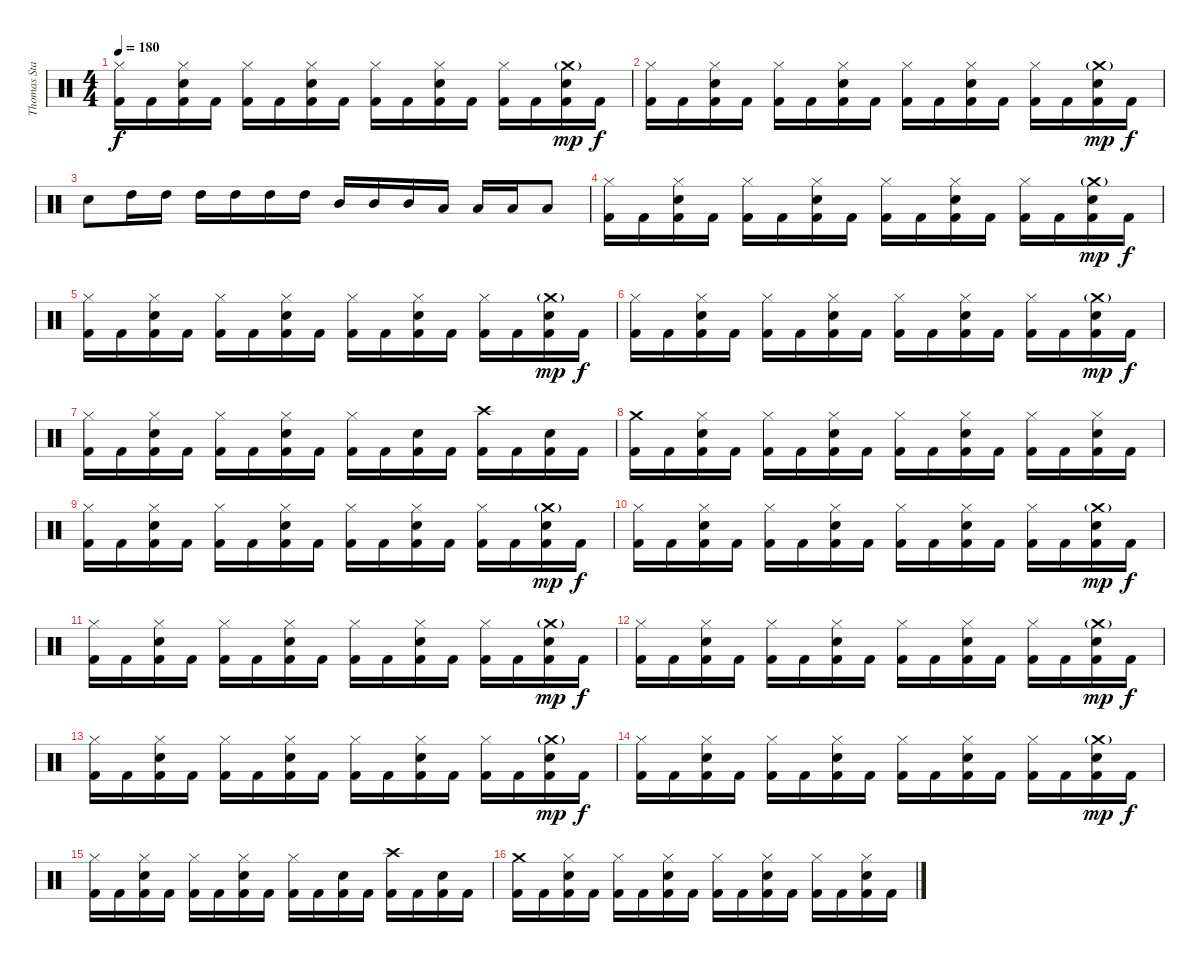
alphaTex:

\track ("Thomas Stauch" "Thomas Sta") {instrument percussion}
\staff {score}
\articulation defaults
\ts (4 4)
\tempo 180
\clef neutral
\ks c
("Hi-Hat (closed)" "Kick (hit) 2").16{dy f} "Kick (hit) 2".16 ("Hi-Hat (closed)" "Electric Snare (hit)" "Kick (hit) 2").16 "Kick (hit) 2".16 ("Hi-Hat (closed)" "Kick (hit) 2").16 "Kick (hit) 2".16 ("Hi-Hat (closed)" "Electric Snare (hit)" "Kick (hit) 2").16 "Kick (hit) 2".16 ("Hi-Hat (closed)" "Kick (hit) 2").16 "Kick (hit) 2".16 ("Hi-Hat (closed)" "Electric Snare (hit)" "Kick (hit) 2").16 "Kick (hit) 2".16 ("Hi-Hat (closed)" "Kick (hit) 2").16 "Kick (hit) 2".16 ("Crash medium (hit)"{g} "Electric Snare (hit)" "Kick (hit) 2").16{dy mp} "Kick (hit) 2".16{dy f} |
("Hi-Hat (closed)" "Kick (hit) 2").16 "Kick (hit) 2".16 ("Hi-Hat (closed)" "Electric Snare (hit)" "Kick (hit) 2").16 "Kick (hit) 2".16 ("Hi-Hat (closed)" "Kick (hit) 2").16 "Kick (hit) 2".16 ("Hi-Hat (closed)" "Electric Snare (hit)" "Kick (hit) 2").16 "Kick (hit) 2".16 ("Hi-Hat (closed)" "Kick (hit) 2").16 "Kick (hit) 2".16 ("Hi-Hat (closed)" "Electric Snare (hit)" "Kick (hit) 2").16 "Kick (hit) 2".16 ("Hi-Hat (closed)" "Kick (hit) 2").16 "Kick (hit) 2".16 ("Crash medium (hit)"{g} "Electric Snare (hit)" "Kick (hit) 2").16{dy mp} "Kick (hit) 2".16{dy f} |
"Electric Snare (hit)".8 "High Tom (hit)".16 "High Tom (hit)".16 "High Tom (hit)".16 "High Tom (hit)".16 "High Tom (hit)".16 "High Tom (hit)".16 "Mid Tom (hit)".16 "Mid Tom (hit)".16 "Mid Tom (hit)".16 "Low Tom (hit)".16 "Low Tom (hit)".16 "Low Tom (hit)".16 "Low Tom (hit)".8 |
("Hi-Hat (closed)" "Kick (hit) 2").16 "Kick (hit) 2".16 ("Hi-Hat (closed)" "Electric Snare (hit)" "Kick (hit) 2").16 "Kick (hit) 2".16 ("Hi-Hat (closed)" "Kick (hit) 2").16 "Kick (hit) 2".16 ("Hi-Hat (closed)" "Electric Snare (hit)" "Kick (hit) 2").16 "Kick (hit) 2".16 ("Hi-Hat (closed)" "Kick (hit) 2").16 "Kick (hit) 2".16 ("Hi-Hat (closed)" "Electric Snare (hit)" "Kick (hit) 2").16 "Kick (hit) 2".16 ("Hi-Hat (closed)" "Kick (hit) 2").16 "Kick (hit) 2".16 ("Crash medium (hit)"{g} "Electric Snare (hit)" "Kick (hit) 2").16{dy mp} "Kick (hit) 2".16{dy f} |
("Hi-Hat (closed)" "Kick (hit) 2").16 "Kick (hit) 2".16 ("Hi-Hat (closed)" "Electric Snare (hit)" "Kick (hit) 2").16 "Kick (hit) 2".16 ("Hi-Hat (closed)" "Kick (hit) 2").16 "Kick (hit) 2".16 ("Hi-Hat (closed)" "Electric Snare (hit)" "Kick (hit) 2").16 "Kick (hit) 2".16 ("Hi-Hat (closed)" "Kick (hit) 2").16 "Kick (hit) 2".16 ("Hi-Hat (closed)" "Electric Snare (hit)" "Kick (hit) 2").16 "Kick (hit) 2".16 ("Hi-Hat (closed)" "Kick (hit) 2").16 "Kick (hit) 2".16 ("Crash medium (hit)"{g} "Electric Snare (hit)" "Kick (hit) 2").16{dy mp} "Kick (hit) 2".16{dy f} |
("Hi-Hat (closed)" "Kick (hit) 2").16 "Kick (hit) 2".16 ("Hi-Hat (closed)" "Electric Snare (hit)" "Kick (hit) 2").16 "Kick (hit) 2".16 ("Hi-Hat (closed)" "Kick (hit) 2").16 "Kick (hit) 2".16 ("Hi-Hat (closed)" "Electric Snare (hit)" "Kick (hit) 2").16 "Kick (hit) 2".16 ("Hi-Hat (closed)" "Kick (hit) 2").16 "Kick (hit) 2".16 ("Hi-Hat (closed)" "Electric Snare (hit)" "Kick (hit) 2").16 "Kick (hit) 2".16 ("Hi-Hat (closed)" "Kick (hit) 2").16 "Kick (hit) 2".16 ("Crash medium (hit)"{g} "Electric Snare (hit)" "Kick (hit) 2").16{dy mp} "Kick (hit) 2".16{dy f} |
("Hi-Hat (closed)" "Kick (hit) 2").16 "Kick (hit) 2".16 ("Hi-Hat (closed)" "Electric Snare (hit)" "Kick (hit) 2").16 "Kick (hit) 2".16 ("Hi-Hat (closed)" "Kick (hit) 2").16 "Kick (hit) 2".16 ("Hi-Hat (closed)" "Electric Snare (hit)" "Kick (hit) 2").16 "Kick (hit) 2".16 ("Hi-Hat (closed)" "Kick (hit) 2").16 "Kick (hit) 2".16 ("Electric Snare (hit)" "Kick (hit) 2").16 "Kick (hit) 2".16 ("Crash high (hit)" "Kick (hit) 2").16 "Kick (hit) 2".16 ("Electric Snare (hit)" "Kick (hit) 2").16 "Kick (hit) 2".16 |
("Crash medium (hit)" "Kick (hit) 2").16 "Kick (hit) 2".16 ("Hi-Hat (closed)" "Electric Snare (hit)" "Kick (hit) 2").16 "Kick (hit) 2".16 ("Hi-Hat (closed)" "Kick (hit) 2").16 "Kick (hit) 2".16 ("Hi-Hat (closed)" "Electric Snare (hit)" "Kick (hit) 2").16 "Kick (hit) 2".16 ("Hi-Hat (closed)" "Kick (hit) 2").16 "Kick (hit) 2".16 ("Hi-Hat (closed)" "Electric Snare (hit)" "Kick (hit) 2").16 "Kick (hit) 2".16 ("Hi-Hat (closed)" "Kick (hit) 2").16 "Kick (hit) 2".16 ("Hi-Hat (closed)" "Electric Snare (hit)" "Kick (hit) 2").16 "Kick (hit) 2".16 |
("Hi-Hat (closed)" "Kick (hit) 2").16 "Kick (hit) 2".16 ("Hi-Hat (closed)" "Electric Snare (hit)" "Kick (hit) 2").16 "Kick (hit) 2".16 ("Hi-Hat (closed)" "Kick (hit) 2").16 "Kick (hit) 2".16 ("Hi-Hat (closed)" "Electric Snare (hit)" "Kick (hit) 2").16 "Kick (hit) 2".16 ("Hi-Hat (closed)" "Kick (hit) 2").16 "Kick (hit) 2".16 ("Hi-Hat (closed)" "Electric Snare (hit)" "Kick (hit) 2").16 "Kick (hit) 2".16 ("Hi-Hat (closed)" "Kick (hit) 2").16 "Kick (hit) 2".16 ("Crash medium (hit)"{g} "Electric Snare (hit)" "Kick (hit) 2").16{dy mp} "Kick (hit) 2".16{dy f} |
("Hi-Hat (closed)" "Kick (hit) 2").16 "Kick (hit) 2".16 ("Hi-Hat (closed)" "Electric Snare (hit)" "Kick (hit) 2").16 "Kick (hit) 2".16 ("Hi-Hat (closed)" "Kick (hit) 2").16 "Kick (hit) 2".16 ("Hi-Hat (closed)" "Electric Snare (hit)" "Kick (hit) 2").16 "Kick (hit) 2".16 ("Hi-Hat (closed)" "Kick (hit) 2").16 "Kick (hit) 2".16 ("Hi-Hat (closed)" "Electric Snare (hit)" "Kick (hit) 2").16 "Kick (hit) 2".16 ("Hi-Hat (closed)" "Kick (hit) 2").16 "Kick (hit) 2".16 ("Crash medium (hit)"{g} "Electric Snare (hit)" "Kick (hit) 2").16{dy mp} "Kick (hit) 2".16{dy f} |
("Hi-Hat (closed)" "Kick (hit) 2").16 "Kick (hit) 2".16 ("Hi-Hat (closed)" "Electric Snare (hit)" "Kick (hit) 2").16 "Kick (hit) 2".16 ("Hi-Hat (closed)" "Kick (hit) 2").16 "Kick (hit) 2".16 ("Hi-Hat (closed)" "Electric Snare (hit)" "Kick (hit) 2").16 "Kick (hit) 2".16 ("Hi-Hat (closed)" "Kick (hit) 2").16 "Kick (hit) 2".16 ("Hi-Hat (closed)" "Electric Snare (hit)" "Kick (hit) 2").16 "Kick (hit) 2".16 ("Hi-Hat (closed)" "Kick (hit) 2").16 "Kick (hit) 2".16 ("Crash medium (hit)"{g} "Electric Snare (hit)" "Kick (hit) 2").16{dy mp} "Kick (hit) 2".16{dy f} |
("Hi-Hat (closed)" "Kick (hit) 2").16 "Kick (hit) 2".16 ("Hi-Hat (closed)" "Electric Snare (hit)" "Kick (hit) 2").16 "Kick (hit) 2".16 ("Hi-Hat (closed)" "Kick (hit) 2").16 "Kick (hit) 2".16 ("Hi-Hat (closed)" "Electric Snare (hit)" "Kick (hit) 2").16 "Kick (hit) 2".16 ("Hi-Hat (closed)" "Kick (hit) 2").16 "Kick (hit) 2".16 ("Hi-Hat (closed)" "Electric Snare (hit)" "Kick (hit) 2").16 "Kick (hit) 2".16 ("Hi-Hat (closed)" "Kick (hit) 2").16 "Kick (hit) 2".16 ("Crash medium (hit)"{g} "Electric Snare (hit)" "Kick (hit) 2").16{dy mp} "Kick (hit) 2".16{dy f} |
("Hi-Hat (closed)" "Kick (hit) 2").16 "Kick (hit) 2".16 ("Hi-Hat (closed)" "Electric Snare (hit)" "Kick (hit) 2").16 "Kick (hit) 2".16 ("Hi-Hat (closed)" "Kick (hit) 2").16 "Kick (hit) 2".16 ("Hi-Hat (closed)" "Electric Snare (hit)" "Kick (hit) 2").16 "Kick (hit) 2".16 ("Hi-Hat (closed)" "Kick (hit) 2").16 "Kick (hit) 2".16 ("Hi-Hat (closed)" "Electric Snare (hit)" "Kick (hit) 2").16 "Kick (hit) 2".16 ("Hi-Hat (closed)" "Kick (hit) 2").16 "Kick (hit) 2".16 ("Crash medium (hit)"{g} "Electric Snare (hit)" "Kick (hit) 2").16{dy mp} "Kick (hit) 2".16{dy f} |
("Hi-Hat (closed)" "Kick (hit) 2").16 "Kick (hit) 2".16 ("Hi-Hat (closed)" "Electric Snare (hit)" "Kick (hit) 2").16 "Kick (hit) 2".16 ("Hi-Hat (closed)" "Kick (hit) 2").16 "Kick (hit) 2".16 ("Hi-Hat (closed)" "Electric Snare (hit)" "Kick (hit) 2").16 "Kick (hit) 2".16 ("Hi-Hat (closed)" "Kick (hit) 2").16 "Kick (hit) 2".16 ("Hi-Hat (closed)" "Electric Snare (hit)" "Kick (hit) 2").16 "Kick (hit) 2".16 ("Hi-Hat (closed)" "Kick (hit) 2").16 "Kick (hit) 2".16 ("Crash medium (hit)"{g} "Electric Snare (hit)" "Kick (hit) 2").16{dy mp} "Kick (hit) 2".16{dy f} |
("Hi-Hat (closed)" "Kick (hit) 2").16 "Kick (hit) 2".16 ("Hi-Hat (closed)" "Electric Snare (hit)" "Kick (hit) 2").16 "Kick (hit) 2".16 ("Hi-Hat (closed)" "Kick (hit) 2").16 "Kick (hit) 2".16 ("Hi-Hat (closed)" "Electric Snare (hit)" "Kick (hit) 2").16 "Kick (hit) 2".16 ("Hi-Hat (closed)" "Kick (hit) 2").16 "Kick (hit) 2".16 ("Electric Snare (hit)" "Kick (hit) 2").16 "Kick (hit) 2".16 ("Crash high (hit)" "Kick (hit) 2").16 "Kick (hit) 2".16 ("Electric Snare (hit)" "Kick (hit) 2").16 "Kick (hit) 2".16 |
("Crash medium (hit)" "Kick (hit) 2").16 "Kick (hit) 2".16 ("Hi-Hat (closed)" "Electric Snare (hit)" "Kick (hit) 2").16 "Kick (hit) 2".16 ("Hi-Hat (closed)" "Kick (hit) 2").16 "Kick (hit) 2".16 ("Hi-Hat (closed)" "Electric Snare (hit)" "Kick (hit) 2").16 "Kick (hit) 2".16 ("Hi-Hat (closed)" "Kick (hit) 2").16 "Kick (hit) 2".16 ("Hi-Hat (closed)" "Electric Snare (hit)" "Kick (hit) 2").16 "Kick (hit) 2".16 ("Hi-Hat (closed)" "Kick (hit) 2").16 "Kick (hit) 2".16 ("Hi-Hat (closed)" "Electric Snare (hit)" "Kick (hit) 2").16 "Kick (hit) 2".16
